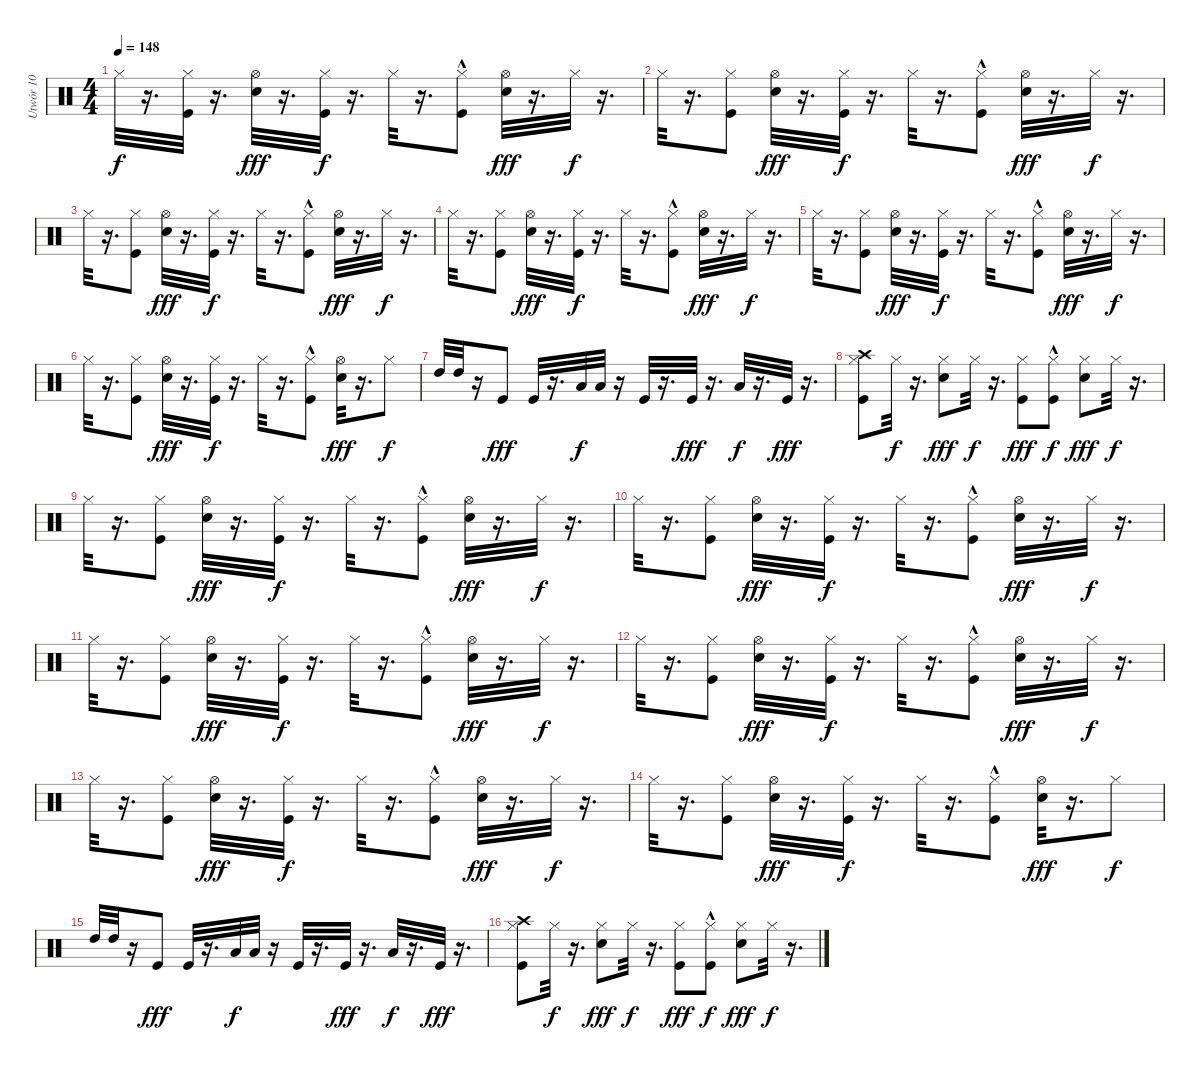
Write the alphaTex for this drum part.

\track ("Utwór 10" "Utwór 10") {instrument percussion}
\staff {score}
\articulation defaults
\ts (4 4)
\tempo 148
\clef neutral
\ks c "Hi-Hat (closed)".32{dy f}
r.16{d} ("Hi-Hat (closed)" "Kick (hit)").32 r.16{d} ("Hi-Hat (open)" "Electric Snare (hit)").32{dy fff} r.16{d} ("Hi-Hat (closed)" "Kick (hit)").32{dy f} r.16{d} "Hi-Hat (closed)".32 r.16{d} ("Hi-Hat (closed)" "Kick (hit)"{hac}).8 ("Hi-Hat (open)" "Electric Snare (hit)").32{dy fff} r.16{d} "Hi-Hat (closed)".32{dy f} r.16{d} |
"Hi-Hat (closed)".32 r.16{d} ("Hi-Hat (closed)" "Kick (hit)").8 ("Hi-Hat (open)" "Electric Snare (hit)").32{dy fff} r.16{d} ("Hi-Hat (closed)" "Kick (hit)").32{dy f} r.16{d} "Hi-Hat (closed)".32 r.16{d} ("Hi-Hat (closed)" "Kick (hit)"{hac}).8 ("Hi-Hat (open)" "Electric Snare (hit)").32{dy fff} r.16{d} "Hi-Hat (closed)".32{dy f} r.16{d} |
"Hi-Hat (closed)".32 r.16{d} ("Hi-Hat (closed)" "Kick (hit)").8 ("Hi-Hat (open)" "Electric Snare (hit)").32{dy fff} r.16{d} ("Hi-Hat (closed)" "Kick (hit)").32{dy f} r.16{d} "Hi-Hat (closed)".32 r.16{d} ("Hi-Hat (closed)" "Kick (hit)"{hac}).8 ("Hi-Hat (open)" "Electric Snare (hit)").32{dy fff} r.16{d} "Hi-Hat (closed)".32{dy f} r.16{d} |
"Hi-Hat (closed)".32 r.16{d} ("Hi-Hat (closed)" "Kick (hit)").8 ("Hi-Hat (open)" "Electric Snare (hit)").32{dy fff} r.16{d} ("Hi-Hat (closed)" "Kick (hit)").32{dy f} r.16{d} "Hi-Hat (closed)".32 r.16{d} ("Hi-Hat (closed)" "Kick (hit)"{hac}).8 ("Hi-Hat (open)" "Electric Snare (hit)").32{dy fff} r.16{d} "Hi-Hat (closed)".32{dy f} r.16{d} |
"Hi-Hat (closed)".32 r.16{d} ("Hi-Hat (closed)" "Kick (hit)").8 ("Hi-Hat (open)" "Electric Snare (hit)").32{dy fff} r.16{d} ("Hi-Hat (closed)" "Kick (hit)").32{dy f} r.16{d} "Hi-Hat (closed)".32 r.16{d} ("Hi-Hat (closed)" "Kick (hit)"{hac}).8 ("Hi-Hat (open)" "Electric Snare (hit)").32{dy fff} r.16{d} "Hi-Hat (closed)".32{dy f} r.16{d} |
"Hi-Hat (closed)".32 r.16{d} ("Hi-Hat (closed)" "Kick (hit)").8 ("Hi-Hat (open)" "Electric Snare (hit)").32{dy fff} r.16{d} ("Hi-Hat (closed)" "Kick (hit)").32{dy f} r.16{d} "Hi-Hat (closed)".32 r.16{d} ("Hi-Hat (closed)" "Kick (hit)"{hac}).8 ("Hi-Hat (open)" "Electric Snare (hit)").32{dy fff} r.16{d} "Hi-Hat (closed)".8{dy f} |
"High Tom (hit)".32 "High Tom (hit)".32 r.16 "Kick (hit)".8{dy fff} "Kick (hit)".32 r.16{d} "Low Tom (hit)".32{dy f} "Low Tom (hit)".32 r.16 "Kick (hit)".32 r.16{d} "Kick (hit)".32{dy fff} r.16{d} "Low Floor Tom (hit)".32{dy f} r.16{d} "Kick (hit)".32{dy fff} r.16{d} |
("Crash high (hit)" "Hi-Hat (closed)" "Kick (hit)").8 "Hi-Hat (closed)".32{dy f} r.16{d} ("Hi-Hat (closed)" "Electric Snare (hit)").8{dy fff} "Hi-Hat (closed)".32{dy f} r.16{d} ("Hi-Hat (closed)" "Kick (hit)").8{dy fff} ("Hi-Hat (closed)" "Kick (hit)"{hac}).8{dy f} ("Hi-Hat (closed)" "Electric Snare (hit)").8{dy fff} "Hi-Hat (closed)".32{dy f} r.16{d} |
"Hi-Hat (closed)".32 r.16{d} ("Hi-Hat (closed)" "Kick (hit)").8 ("Hi-Hat (open)" "Electric Snare (hit)").32{dy fff} r.16{d} ("Hi-Hat (closed)" "Kick (hit)").32{dy f} r.16{d} "Hi-Hat (closed)".32 r.16{d} ("Hi-Hat (closed)" "Kick (hit)"{hac}).8 ("Hi-Hat (open)" "Electric Snare (hit)").32{dy fff} r.16{d} "Hi-Hat (closed)".32{dy f} r.16{d} |
"Hi-Hat (closed)".32 r.16{d} ("Hi-Hat (closed)" "Kick (hit)").8 ("Hi-Hat (open)" "Electric Snare (hit)").32{dy fff} r.16{d} ("Hi-Hat (closed)" "Kick (hit)").32{dy f} r.16{d} "Hi-Hat (closed)".32 r.16{d} ("Hi-Hat (closed)" "Kick (hit)"{hac}).8 ("Hi-Hat (open)" "Electric Snare (hit)").32{dy fff} r.16{d} "Hi-Hat (closed)".32{dy f} r.16{d} |
"Hi-Hat (closed)".32 r.16{d} ("Hi-Hat (closed)" "Kick (hit)").8 ("Hi-Hat (open)" "Electric Snare (hit)").32{dy fff} r.16{d} ("Hi-Hat (closed)" "Kick (hit)").32{dy f} r.16{d} "Hi-Hat (closed)".32 r.16{d} ("Hi-Hat (closed)" "Kick (hit)"{hac}).8 ("Hi-Hat (open)" "Electric Snare (hit)").32{dy fff} r.16{d} "Hi-Hat (closed)".32{dy f} r.16{d} |
"Hi-Hat (closed)".32 r.16{d} ("Hi-Hat (closed)" "Kick (hit)").8 ("Hi-Hat (open)" "Electric Snare (hit)").32{dy fff} r.16{d} ("Hi-Hat (closed)" "Kick (hit)").32{dy f} r.16{d} "Hi-Hat (closed)".32 r.16{d} ("Hi-Hat (closed)" "Kick (hit)"{hac}).8 ("Hi-Hat (open)" "Electric Snare (hit)").32{dy fff} r.16{d} "Hi-Hat (closed)".32{dy f} r.16{d} |
"Hi-Hat (closed)".32 r.16{d} ("Hi-Hat (closed)" "Kick (hit)").8 ("Hi-Hat (open)" "Electric Snare (hit)").32{dy fff} r.16{d} ("Hi-Hat (closed)" "Kick (hit)").32{dy f} r.16{d} "Hi-Hat (closed)".32 r.16{d} ("Hi-Hat (closed)" "Kick (hit)"{hac}).8 ("Hi-Hat (open)" "Electric Snare (hit)").32{dy fff} r.16{d} "Hi-Hat (closed)".32{dy f} r.16{d} |
"Hi-Hat (closed)".32 r.16{d} ("Hi-Hat (closed)" "Kick (hit)").8 ("Hi-Hat (open)" "Electric Snare (hit)").32{dy fff} r.16{d} ("Hi-Hat (closed)" "Kick (hit)").32{dy f} r.16{d} "Hi-Hat (closed)".32 r.16{d} ("Hi-Hat (closed)" "Kick (hit)"{hac}).8 ("Hi-Hat (open)" "Electric Snare (hit)").32{dy fff} r.16{d} "Hi-Hat (closed)".8{dy f} |
"High Tom (hit)".32 "High Tom (hit)".32 r.16 "Kick (hit)".8{dy fff} "Kick (hit)".32 r.16{d} "Low Tom (hit)".32{dy f} "Low Tom (hit)".32 r.16 "Kick (hit)".32 r.16{d} "Kick (hit)".32{dy fff} r.16{d} "Low Floor Tom (hit)".32{dy f} r.16{d} "Kick (hit)".32{dy fff} r.16{d} |
("Crash high (hit)" "Hi-Hat (closed)" "Kick (hit)").8 "Hi-Hat (closed)".32{dy f} r.16{d} ("Hi-Hat (closed)" "Electric Snare (hit)").8{dy fff} "Hi-Hat (closed)".32{dy f} r.16{d} ("Hi-Hat (closed)" "Kick (hit)").8{dy fff} ("Hi-Hat (closed)" "Kick (hit)"{hac}).8{dy f} ("Hi-Hat (closed)" "Electric Snare (hit)").8{dy fff} "Hi-Hat (closed)".32{dy f} r.16{d}
